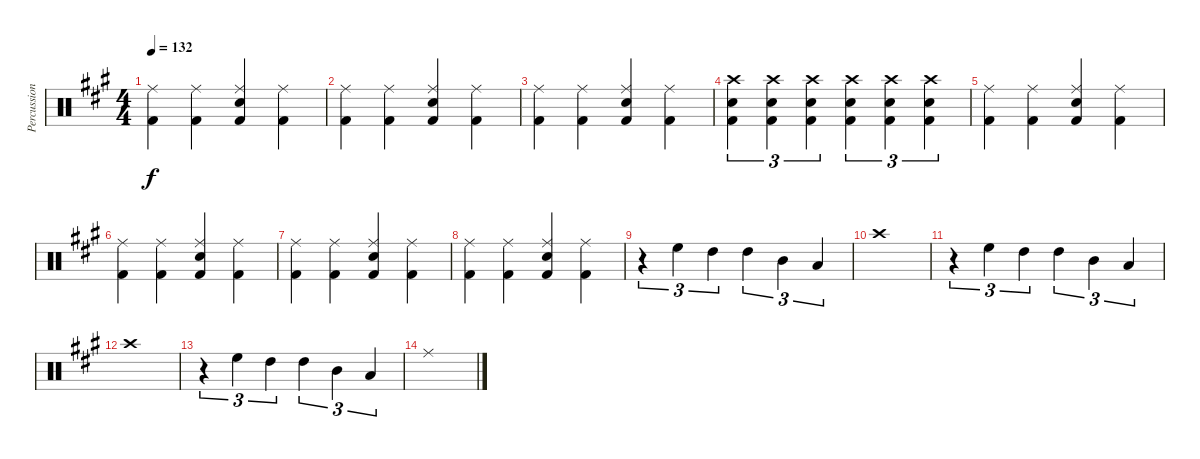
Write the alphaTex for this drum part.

\track ("Percussion" "Percussion") {instrument percussion}
\staff {score}
\articulation defaults
\ts (4 4)
\tempo 132
\clef neutral
\ks a
("Kick (hit) 2" "Ride (middle)").4{dy f} ("Kick (hit) 2" "Ride (middle)").4 ("Kick (hit) 2" "Electric Snare (hit)" "Ride (middle)").4 ("Kick (hit) 2" "Ride (middle)").4 |
("Kick (hit) 2" "Ride (middle)").4 ("Kick (hit) 2" "Ride (middle)").4 ("Kick (hit) 2" "Electric Snare (hit)" "Ride (middle)").4 ("Kick (hit) 2" "Ride (middle)").4 |
("Kick (hit) 2" "Ride (middle)").4 ("Kick (hit) 2" "Ride (middle)").4 ("Kick (hit) 2" "Electric Snare (hit)" "Ride (middle)").4 ("Kick (hit) 2" "Ride (middle)").4 |
("Kick (hit) 2" "Electric Snare (hit)" "Crash high (hit)").4{tu (3 2)} ("Kick (hit) 2" "Electric Snare (hit)" "Crash high (hit)").4{tu (3 2)} ("Kick (hit) 2" "Electric Snare (hit)" "Crash high (hit)").4{tu (3 2)} ("Kick (hit) 2" "Electric Snare (hit)" "Crash high (hit)").4{tu (3 2)} ("Kick (hit) 2" "Electric Snare (hit)" "Crash high (hit)").4{tu (3 2)} ("Kick (hit) 2" "Electric Snare (hit)" "Crash high (hit)").4{tu (3 2)} |
("Kick (hit) 2" "Ride (middle)").4 ("Kick (hit) 2" "Ride (middle)").4 ("Kick (hit) 2" "Electric Snare (hit)" "Ride (middle)").4 ("Kick (hit) 2" "Ride (middle)").4 |
("Kick (hit) 2" "Ride (middle)").4 ("Kick (hit) 2" "Ride (middle)").4 ("Kick (hit) 2" "Electric Snare (hit)" "Ride (middle)").4 ("Kick (hit) 2" "Ride (middle)").4 |
("Kick (hit) 2" "Ride (middle)").4 ("Kick (hit) 2" "Ride (middle)").4 ("Kick (hit) 2" "Electric Snare (hit)" "Ride (middle)").4 ("Kick (hit) 2" "Ride (middle)").4 |
("Kick (hit) 2" "Ride (middle)").4 ("Kick (hit) 2" "Ride (middle)").4 ("Kick (hit) 2" "Electric Snare (hit)" "Ride (middle)").4 ("Kick (hit) 2" "Ride (middle)").4 |
r.4{tu (3 2)} "High Floor Tom (hit)".4{tu (3 2)} "High Tom (hit)".4{tu (3 2)} "High Tom (hit)".4{tu (3 2)} "Mid Tom (hit)".4{tu (3 2)} "Low Tom (hit)".4{tu (3 2)} |
"Crash high (hit)".1 |
r.4{tu (3 2)} "High Floor Tom (hit)".4{tu (3 2)} "High Tom (hit)".4{tu (3 2)} "High Tom (hit)".4{tu (3 2)} "Mid Tom (hit)".4{tu (3 2)} "Low Tom (hit)".4{tu (3 2)} |
"Crash high (hit)".1 |
r.4{tu (3 2)} "High Floor Tom (hit)".4{tu (3 2)} "High Tom (hit)".4{tu (3 2)} "High Tom (hit)".4{tu (3 2)} "Mid Tom (hit)".4{tu (3 2)} "Low Tom (hit)".4{tu (3 2)} |
"Ride (middle)".1
